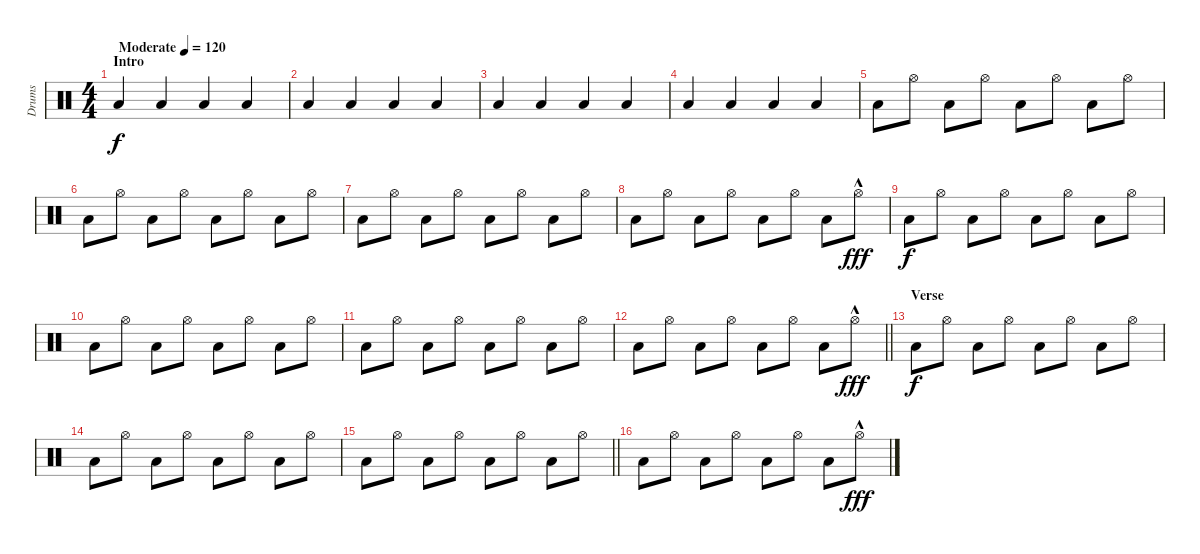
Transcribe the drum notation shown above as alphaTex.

\track ("Drums" "Drums") {instrument percussion}
\staff {score}
\articulation defaults
\ts (4 4)
\section ("" "Intro")
\tempo (120 "Moderate")
\clef neutral
\ks c "Low Floor Tom (hit)".4{dy f} "Low Floor Tom (hit)".4 "Low Floor Tom (hit)".4 "Low Floor Tom (hit)".4
|
"Low Floor Tom (hit)".4 "Low Floor Tom (hit)".4 "Low Floor Tom (hit)".4 "Low Floor Tom (hit)".4 |
"Low Floor Tom (hit)".4 "Low Floor Tom (hit)".4 "Low Floor Tom (hit)".4 "Low Floor Tom (hit)".4 |
"Low Floor Tom (hit)".4 "Low Floor Tom (hit)".4 "Low Floor Tom (hit)".4 "Low Floor Tom (hit)".4 |
"Low Floor Tom (hit)".8 "Hi-Hat (open)".8 "Low Floor Tom (hit)".8 "Hi-Hat (open)".8 "Low Floor Tom (hit)".8 "Hi-Hat (open)".8 "Low Floor Tom (hit)".8 "Hi-Hat (open)".8 |
"Low Floor Tom (hit)".8 "Hi-Hat (open)".8 "Low Floor Tom (hit)".8 "Hi-Hat (open)".8 "Low Floor Tom (hit)".8 "Hi-Hat (open)".8 "Low Floor Tom (hit)".8 "Hi-Hat (open)".8 |
"Low Floor Tom (hit)".8 "Hi-Hat (open)".8 "Low Floor Tom (hit)".8 "Hi-Hat (open)".8 "Low Floor Tom (hit)".8 "Hi-Hat (open)".8 "Low Floor Tom (hit)".8 "Hi-Hat (open)".8 |
"Low Floor Tom (hit)".8 "Hi-Hat (open)".8 "Low Floor Tom (hit)".8 "Hi-Hat (open)".8 "Low Floor Tom (hit)".8 "Hi-Hat (open)".8 "Low Floor Tom (hit)".8 "Hi-Hat (open)"{hac}.8{dy fff} |
"Low Floor Tom (hit)".8{dy f} "Hi-Hat (open)".8 "Low Floor Tom (hit)".8 "Hi-Hat (open)".8 "Low Floor Tom (hit)".8 "Hi-Hat (open)".8 "Low Floor Tom (hit)".8 "Hi-Hat (open)".8 |
"Low Floor Tom (hit)".8 "Hi-Hat (open)".8 "Low Floor Tom (hit)".8 "Hi-Hat (open)".8 "Low Floor Tom (hit)".8 "Hi-Hat (open)".8 "Low Floor Tom (hit)".8 "Hi-Hat (open)".8 |
"Low Floor Tom (hit)".8 "Hi-Hat (open)".8 "Low Floor Tom (hit)".8 "Hi-Hat (open)".8 "Low Floor Tom (hit)".8 "Hi-Hat (open)".8 "Low Floor Tom (hit)".8 "Hi-Hat (open)".8 |
\barLineRight lightlight "Low Floor Tom (hit)".8 "Hi-Hat (open)".8 "Low Floor Tom (hit)".8 "Hi-Hat (open)".8 "Low Floor Tom (hit)".8 "Hi-Hat (open)".8 "Low Floor Tom (hit)".8 "Hi-Hat (open)"{hac}.8{dy fff}
|
\section ("" "Verse")
"Low Floor Tom (hit)".8{dy f} "Hi-Hat (open)".8 "Low Floor Tom (hit)".8 "Hi-Hat (open)".8 "Low Floor Tom (hit)".8 "Hi-Hat (open)".8 "Low Floor Tom (hit)".8 "Hi-Hat (open)".8 |
"Low Floor Tom (hit)".8 "Hi-Hat (open)".8 "Low Floor Tom (hit)".8 "Hi-Hat (open)".8 "Low Floor Tom (hit)".8 "Hi-Hat (open)".8 "Low Floor Tom (hit)".8 "Hi-Hat (open)".8 |
\barLineRight lightlight "Low Floor Tom (hit)".8 "Hi-Hat (open)".8 "Low Floor Tom (hit)".8 "Hi-Hat (open)".8 "Low Floor Tom (hit)".8 "Hi-Hat (open)".8 "Low Floor Tom (hit)".8 "Hi-Hat (open)".8
|
"Low Floor Tom (hit)".8 "Hi-Hat (open)".8 "Low Floor Tom (hit)".8 "Hi-Hat (open)".8 "Low Floor Tom (hit)".8 "Hi-Hat (open)".8 "Low Floor Tom (hit)".8 "Hi-Hat (open)"{hac}.8{dy fff}
